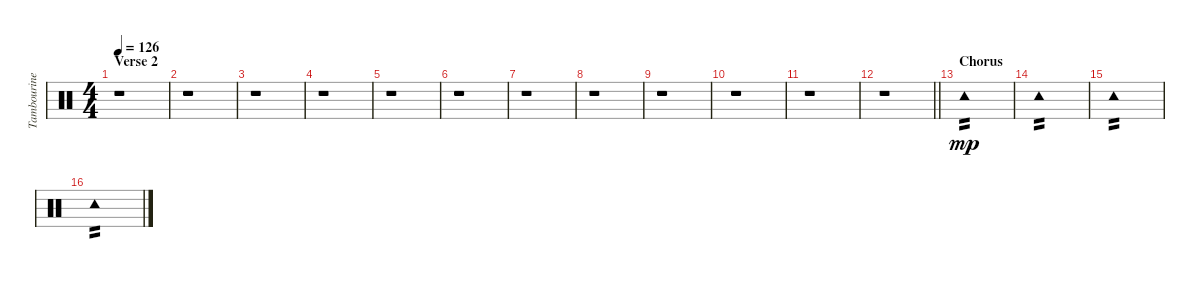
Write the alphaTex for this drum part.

\track ("Tambourine" "Tambourine") {instrument percussion}
\staff {score}
\articulation defaults
\ts (4 4)
\section ("" "Verse 2")
\tempo 126
\clef neutral
\ks c
r.1{dy mp} |
r.1 |
r.1 |
r.1 |
r.1 |
r.1 |
r.1 |
r.1 |
r.1 |
r.1 |
r.1 |
\barLineRight lightlight
r.1 |
\section ("" "Chorus")
"Tambourine (hit)".1{tp 2} |
"Tambourine (hit)".1{tp 2} |
"Tambourine (hit)".1{tp 2} |
"Tambourine (hit)".1{tp 2}
